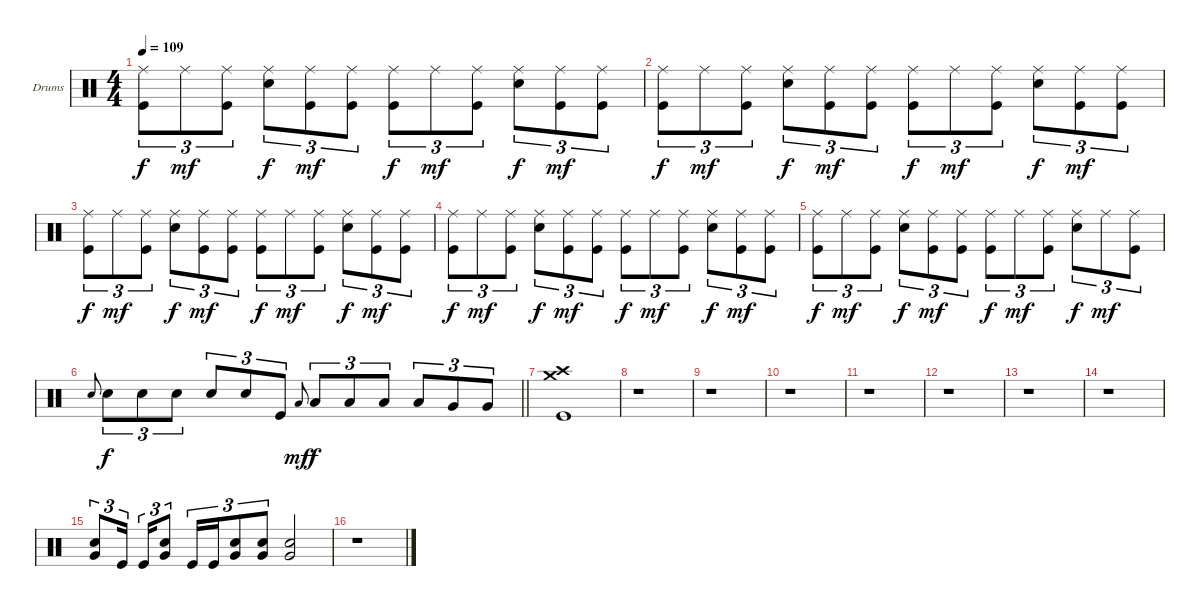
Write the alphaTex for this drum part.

\bracketExtendMode groupsimilarinstruments
\firstSystemTrackNameOrientation horizontal
\otherSystemsTrackNameOrientation horizontal
\track ("Drumkit (Christoph)" "Drums") {instrument percussion}
\staff {score}
\articulation defaults
\ts (4 4)
\tempo 109
\clef neutral
\ks c
("Ride (middle)" "Kick (hit)").8{tu (3 2) dy f} "Ride (middle)".8{tu (3 2) dy mf} ("Ride (middle)" "Kick (hit)").8{tu (3 2)} ("Ride (middle)" "Snare (hit) 2").8{tu (3 2) dy f} ("Ride (middle)" "Kick (hit)").8{tu (3 2) dy mf} ("Ride (middle)" "Kick (hit)").8{tu (3 2)} ("Ride (middle)" "Kick (hit)").8{tu (3 2) dy f} "Ride (middle)".8{tu (3 2) dy mf} ("Ride (middle)" "Kick (hit)").8{tu (3 2)} ("Ride (middle)" "Snare (hit) 2").8{tu (3 2) dy f} ("Ride (middle)" "Kick (hit)").8{tu (3 2) dy mf} ("Ride (middle)" "Kick (hit)").8{tu (3 2)} |
("Ride (middle)" "Kick (hit)").8{tu (3 2) dy f} "Ride (middle)".8{tu (3 2) dy mf} ("Ride (middle)" "Kick (hit)").8{tu (3 2)} ("Ride (middle)" "Snare (hit) 2").8{tu (3 2) dy f} ("Ride (middle)" "Kick (hit)").8{tu (3 2) dy mf} ("Ride (middle)" "Kick (hit)").8{tu (3 2)} ("Ride (middle)" "Kick (hit)").8{tu (3 2) dy f} "Ride (middle)".8{tu (3 2) dy mf} ("Ride (middle)" "Kick (hit)").8{tu (3 2)} ("Ride (middle)" "Snare (hit) 2").8{tu (3 2) dy f} ("Ride (middle)" "Kick (hit)").8{tu (3 2) dy mf} ("Ride (middle)" "Kick (hit)").8{tu (3 2)} |
("Ride (middle)" "Kick (hit)").8{tu (3 2) dy f} "Ride (middle)".8{tu (3 2) dy mf} ("Ride (middle)" "Kick (hit)").8{tu (3 2)} ("Ride (middle)" "Snare (hit) 2").8{tu (3 2) dy f} ("Ride (middle)" "Kick (hit)").8{tu (3 2) dy mf} ("Ride (middle)" "Kick (hit)").8{tu (3 2)} ("Ride (middle)" "Kick (hit)").8{tu (3 2) dy f} "Ride (middle)".8{tu (3 2) dy mf} ("Ride (middle)" "Kick (hit)").8{tu (3 2)} ("Ride (middle)" "Snare (hit) 2").8{tu (3 2) dy f} ("Ride (middle)" "Kick (hit)").8{tu (3 2) dy mf} ("Ride (middle)" "Kick (hit)").8{tu (3 2)} |
("Ride (middle)" "Kick (hit)").8{tu (3 2) dy f} "Ride (middle)".8{tu (3 2) dy mf} ("Ride (middle)" "Kick (hit)").8{tu (3 2)} ("Ride (middle)" "Snare (hit) 2").8{tu (3 2) dy f} ("Ride (middle)" "Kick (hit)").8{tu (3 2) dy mf} ("Ride (middle)" "Kick (hit)").8{tu (3 2)} ("Ride (middle)" "Kick (hit)").8{tu (3 2) dy f} "Ride (middle)".8{tu (3 2) dy mf} ("Ride (middle)" "Kick (hit)").8{tu (3 2)} ("Ride (middle)" "Snare (hit) 2").8{tu (3 2) dy f} ("Ride (middle)" "Kick (hit)").8{tu (3 2) dy mf} ("Ride (middle)" "Kick (hit)").8{tu (3 2)} |
("Ride (middle)" "Kick (hit)").8{tu (3 2) dy f} "Ride (middle)".8{tu (3 2) dy mf} ("Ride (middle)" "Kick (hit)").8{tu (3 2)} ("Ride (middle)" "Snare (hit) 2").8{tu (3 2) dy f} ("Ride (middle)" "Kick (hit)").8{tu (3 2) dy mf} ("Ride (middle)" "Kick (hit)").8{tu (3 2)} ("Ride (middle)" "Kick (hit)").8{tu (3 2) dy f} "Ride (middle)".8{tu (3 2) dy mf} ("Ride (middle)" "Kick (hit)").8{tu (3 2)} ("Ride (middle)" "Snare (hit) 2").8{tu (3 2) dy f} "Ride (middle)".8{tu (3 2) dy mf} ("Ride (middle)" "Kick (hit)").8{tu (3 2)} |
\barLineRight lightlight "Snare (hit) 2".8{gr onbeat} "Snare (hit) 2".8{tu (3 2) dy f} "Snare (hit) 2".8{tu (3 2)} "Snare (hit) 2".8{tu (3 2)} "Snare (hit) 2".8{tu (3 2)} "Snare (hit) 2".8{tu (3 2)} "Kick (hit)".8{tu (3 2)} "Low Tom (hit)".8{gr onbeat dy mf} "Low Tom (hit)".8{tu (3 2) dy f} "Low Tom (hit)".8{tu (3 2)} "Low Tom (hit)".8{tu (3 2)} "Low Tom (hit)".8{tu (3 2)} "Very Low Tom (hit)".8{tu (3 2)} "Very Low Tom (hit)".8{tu (3 2)}
|
("Crash medium (hit)" "Crash high (hit)" "Kick (hit)").1 |
r.1 |
r.1 |
r.1 |
r.1 |
r.1 |
r.1 |
r.1 |
("Very Low Tom (hit)" "Snare (hit) 2").8{tu (3 2)} "Kick (hit)".16{tu (3 2)} "Kick (hit)".16{tu (3 2)} ("Very Low Tom (hit)" "Snare (hit) 2").8{tu (3 2)} "Kick (hit)".16{tu (3 2)} "Kick (hit)".16{tu (3 2)} ("Very Low Tom (hit)" "Snare (hit) 2").8{tu (3 2)} ("Very Low Tom (hit)" "Snare (hit) 2").8{tu (3 2)} ("Very Low Tom (hit)" "Snare (hit) 2").2 |
r.1
